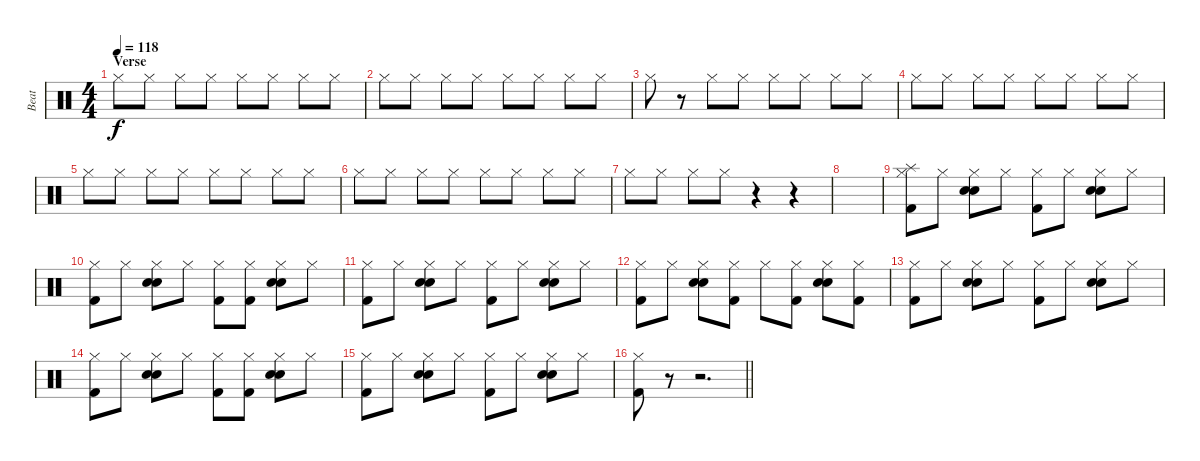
\track ("Beat" "Beat") {instrument percussion}
\staff {score}
\articulation defaults
\ts (4 4)
\section ("" "Verse")
\tempo 118
\clef neutral
\ks c "Hi-Hat (closed)".8{dy f} "Hi-Hat (closed)".8 "Hi-Hat (closed)".8 "Hi-Hat (closed)".8 "Hi-Hat (closed)".8 "Hi-Hat (closed)".8 "Hi-Hat (closed)".8 "Hi-Hat (closed)".8
|
"Hi-Hat (closed)".8 "Hi-Hat (closed)".8 "Hi-Hat (closed)".8 "Hi-Hat (closed)".8 "Hi-Hat (closed)".8 "Hi-Hat (closed)".8 "Hi-Hat (closed)".8 "Hi-Hat (closed)".8 |
"Hi-Hat (closed)".8 r.8 "Hi-Hat (closed)".8 "Hi-Hat (closed)".8 "Hi-Hat (closed)".8 "Hi-Hat (closed)".8 "Hi-Hat (closed)".8 "Hi-Hat (closed)".8 |
"Hi-Hat (closed)".8 "Hi-Hat (closed)".8 "Hi-Hat (closed)".8 "Hi-Hat (closed)".8 "Hi-Hat (closed)".8 "Hi-Hat (closed)".8 "Hi-Hat (closed)".8 "Hi-Hat (closed)".8 |
"Hi-Hat (closed)".8 "Hi-Hat (closed)".8 "Hi-Hat (closed)".8 "Hi-Hat (closed)".8 "Hi-Hat (closed)".8 "Hi-Hat (closed)".8 "Hi-Hat (closed)".8 "Hi-Hat (closed)".8 |
"Hi-Hat (closed)".8 "Hi-Hat (closed)".8 "Hi-Hat (closed)".8 "Hi-Hat (closed)".8 "Hi-Hat (closed)".8 "Hi-Hat (closed)".8 "Hi-Hat (closed)".8 "Hi-Hat (closed)".8 |
"Hi-Hat (closed)".8 "Hi-Hat (closed)".8 "Hi-Hat (closed)".8 "Hi-Hat (closed)".8 r.4 r.4 |
|
("Splash (hit)" "Hi-Hat (closed)" "Kick (hit) 2").8 "Hi-Hat (closed)".8 ("Hi-Hat (closed)" "Electric Snare (hit)" "Hand Clap (hit)").8 "Hi-Hat (closed)".8 ("Hi-Hat (closed)" "Kick (hit) 2").8 "Hi-Hat (closed)".8 ("Hi-Hat (closed)" "Electric Snare (hit)" "Hand Clap (hit)").8 "Hi-Hat (closed)".8 |
("Hi-Hat (closed)" "Kick (hit) 2").8 "Hi-Hat (closed)".8 ("Hi-Hat (closed)" "Electric Snare (hit)" "Hand Clap (hit)").8 "Hi-Hat (closed)".8 ("Hi-Hat (closed)" "Kick (hit) 2").8 ("Hi-Hat (closed)" "Kick (hit) 2").8 ("Hi-Hat (closed)" "Electric Snare (hit)" "Hand Clap (hit)").8 "Hi-Hat (closed)".8 |
("Hi-Hat (closed)" "Kick (hit) 2").8 "Hi-Hat (closed)".8 ("Hi-Hat (closed)" "Electric Snare (hit)" "Hand Clap (hit)").8 "Hi-Hat (closed)".8 ("Hi-Hat (closed)" "Kick (hit) 2").8 "Hi-Hat (closed)".8 ("Hi-Hat (closed)" "Electric Snare (hit)" "Hand Clap (hit)").8 "Hi-Hat (closed)".8 |
("Hi-Hat (closed)" "Kick (hit) 2").8 "Hi-Hat (closed)".8 ("Hi-Hat (closed)" "Electric Snare (hit)" "Hand Clap (hit)").8 ("Hi-Hat (closed)" "Kick (hit) 2").8 "Hi-Hat (closed)".8 ("Hi-Hat (closed)" "Kick (hit) 2").8 ("Hi-Hat (closed)" "Electric Snare (hit)" "Hand Clap (hit)").8 ("Hi-Hat (closed)" "Kick (hit) 2").8 |
("Hi-Hat (closed)" "Kick (hit) 2").8 "Hi-Hat (closed)".8 ("Hi-Hat (closed)" "Electric Snare (hit)" "Hand Clap (hit)").8 "Hi-Hat (closed)".8 ("Hi-Hat (closed)" "Kick (hit) 2").8 "Hi-Hat (closed)".8 ("Hi-Hat (closed)" "Electric Snare (hit)" "Hand Clap (hit)").8 "Hi-Hat (closed)".8 |
("Hi-Hat (closed)" "Kick (hit) 2").8 "Hi-Hat (closed)".8 ("Hi-Hat (closed)" "Electric Snare (hit)" "Hand Clap (hit)").8 "Hi-Hat (closed)".8 ("Hi-Hat (closed)" "Kick (hit) 2").8 ("Hi-Hat (closed)" "Kick (hit) 2").8 ("Hi-Hat (closed)" "Electric Snare (hit)" "Hand Clap (hit)").8 "Hi-Hat (closed)".8 |
("Hi-Hat (closed)" "Kick (hit) 2").8 "Hi-Hat (closed)".8 ("Hi-Hat (closed)" "Electric Snare (hit)" "Hand Clap (hit)").8 "Hi-Hat (closed)".8 ("Hi-Hat (closed)" "Kick (hit) 2").8 "Hi-Hat (closed)".8 ("Hi-Hat (closed)" "Electric Snare (hit)" "Hand Clap (hit)").8 "Hi-Hat (closed)".8 |
\barLineRight lightlight
("Hi-Hat (closed)" "Kick (hit) 2").8 r.8 r.2{d}
